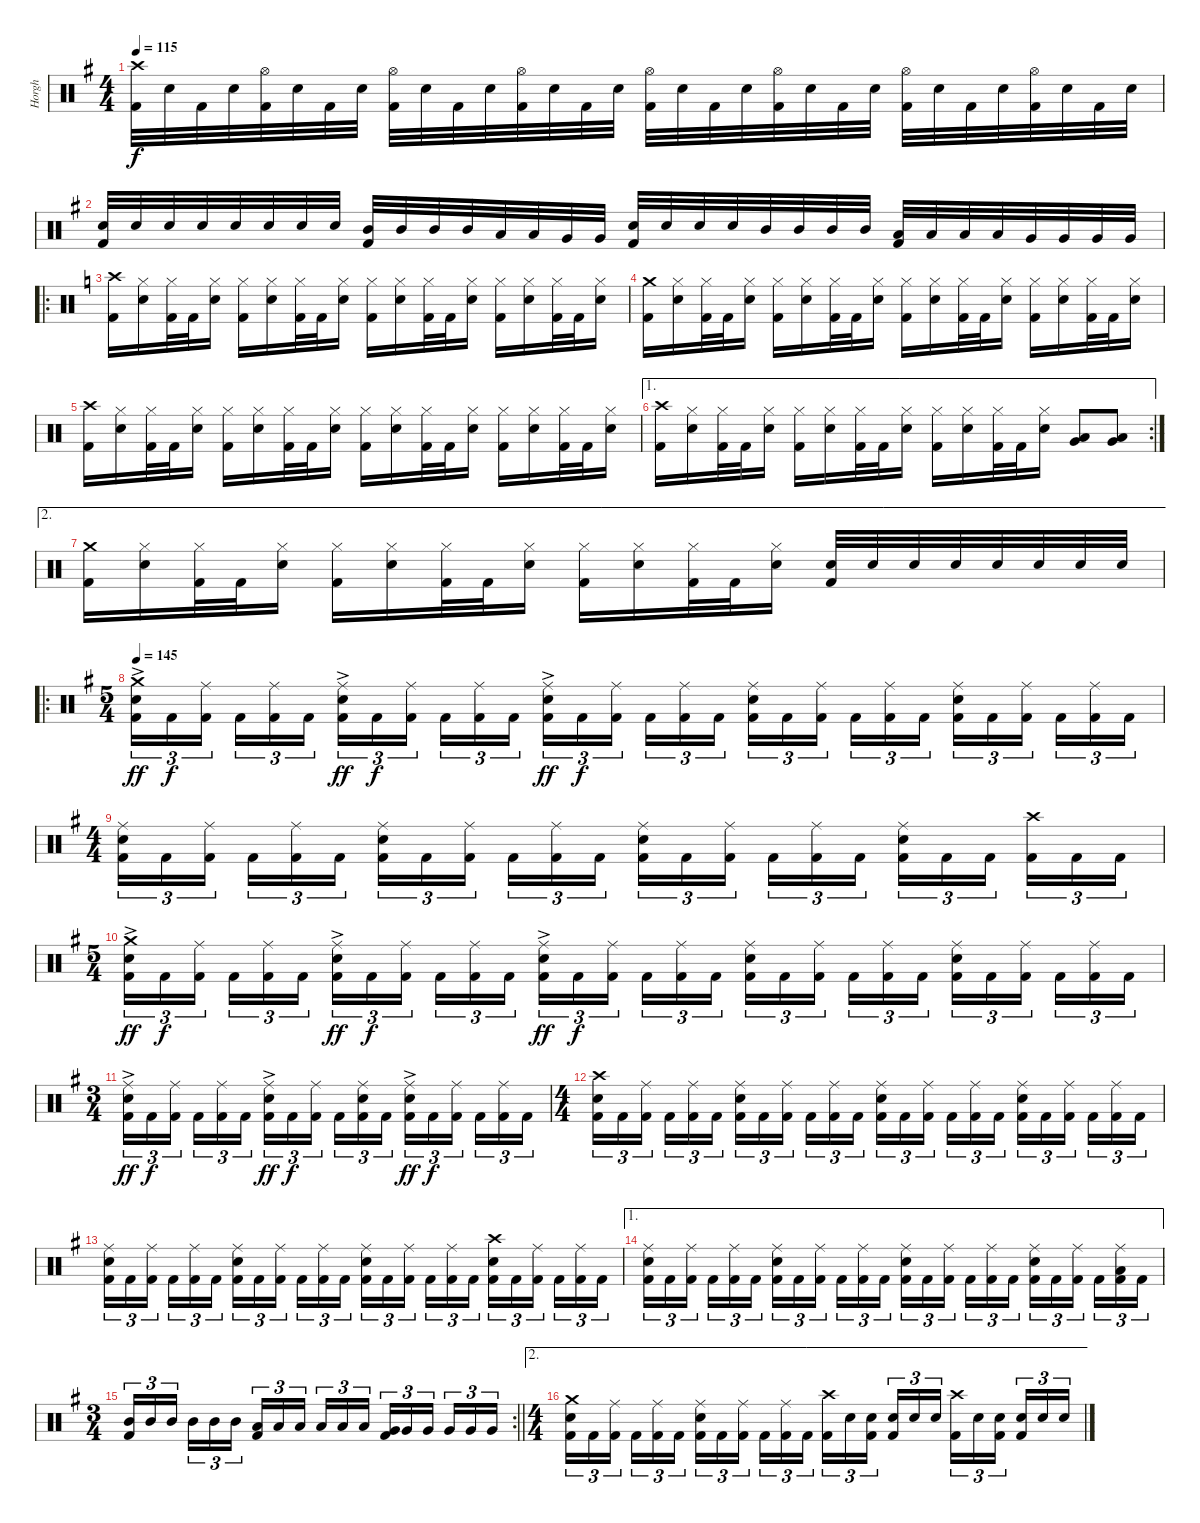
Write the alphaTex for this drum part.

\track ("Horgh" "Horgh") {instrument percussion}
\staff {score}
\articulation defaults
\ts (4 4)
\tempo 115
\clef neutral
\ks g
("Crash high (hit)" "Kick (hit) 2").32{dy f} "Electric Snare (hit)".32 "Kick (hit) 2".32 "Electric Snare (hit)".32 ("Hi-Hat (open)" "Kick (hit) 2").32 "Electric Snare (hit)".32 "Kick (hit) 2".32 "Electric Snare (hit)".32 ("Hi-Hat (open)" "Kick (hit) 2").32 "Electric Snare (hit)".32 "Kick (hit) 2".32 "Electric Snare (hit)".32 ("Hi-Hat (open)" "Kick (hit) 2").32 "Electric Snare (hit)".32 "Kick (hit) 2".32 "Electric Snare (hit)".32 ("Hi-Hat (open)" "Kick (hit) 2").32 "Electric Snare (hit)".32 "Kick (hit) 2".32 "Electric Snare (hit)".32 ("Hi-Hat (open)" "Kick (hit) 2").32 "Electric Snare (hit)".32 "Kick (hit) 2".32 "Electric Snare (hit)".32 ("Hi-Hat (open)" "Kick (hit) 2").32 "Electric Snare (hit)".32 "Kick (hit) 2".32 "Electric Snare (hit)".32 ("Hi-Hat (open)" "Kick (hit) 2").32 "Electric Snare (hit)".32 "Kick (hit) 2".32 "Electric Snare (hit)".32 |
("Electric Snare (hit)" "Kick (hit) 2").32 "Electric Snare (hit)".32 "Electric Snare (hit)".32 "Electric Snare (hit)".32 "Electric Snare (hit)".32 "Electric Snare (hit)".32 "Electric Snare (hit)".32 "Electric Snare (hit)".32 ("Mid Tom (hit)" "Kick (hit) 2").32 "Mid Tom (hit)".32 "Mid Tom (hit)".32 "Mid Tom (hit)".32 "Low Tom (hit)".32 "Low Tom (hit)".32 "Very Low Tom (hit)".32 "Very Low Tom (hit)".32 ("Electric Snare (hit)" "Kick (hit) 2").32 "Electric Snare (hit)".32 "Electric Snare (hit)".32 "Electric Snare (hit)".32 "Mid Tom (hit)".32 "Mid Tom (hit)".32 "Mid Tom (hit)".32 "Mid Tom (hit)".32 ("Low Tom (hit)" "Kick (hit) 2").32 "Low Tom (hit)".32 "Low Tom (hit)".32 "Low Tom (hit)".32 "Very Low Tom (hit)".32 "Very Low Tom (hit)".32 "Very Low Tom (hit)".32 "Very Low Tom (hit)".32 |
\ro
\ks c
("Crash high (hit)" "Kick (hit) 2").16 ("Hi-Hat (closed)" "Electric Snare (hit)").16 ("Hi-Hat (closed)" "Kick (hit) 2").32 "Kick (hit) 2".32 ("Hi-Hat (closed)" "Electric Snare (hit)").16 ("Hi-Hat (closed)" "Kick (hit) 2").16 ("Hi-Hat (closed)" "Electric Snare (hit)").16 ("Hi-Hat (closed)" "Kick (hit) 2").32 "Kick (hit) 2".32 ("Hi-Hat (closed)" "Electric Snare (hit)").16 ("Hi-Hat (closed)" "Kick (hit) 2").16 ("Hi-Hat (closed)" "Electric Snare (hit)").16 ("Hi-Hat (closed)" "Kick (hit) 2").32 "Kick (hit) 2".32 ("Hi-Hat (closed)" "Electric Snare (hit)").16 ("Hi-Hat (closed)" "Kick (hit) 2").16 ("Hi-Hat (closed)" "Electric Snare (hit)").16 ("Hi-Hat (closed)" "Kick (hit) 2").32 "Kick (hit) 2".32 ("Hi-Hat (closed)" "Electric Snare (hit)").16 |
("Crash medium (hit)" "Kick (hit) 2").16 ("Hi-Hat (closed)" "Electric Snare (hit)").16 ("Hi-Hat (closed)" "Kick (hit) 2").32 "Kick (hit) 2".32 ("Hi-Hat (closed)" "Electric Snare (hit)").16 ("Hi-Hat (closed)" "Kick (hit) 2").16 ("Hi-Hat (closed)" "Electric Snare (hit)").16 ("Hi-Hat (closed)" "Kick (hit) 2").32 "Kick (hit) 2".32 ("Hi-Hat (closed)" "Electric Snare (hit)").16 ("Hi-Hat (closed)" "Kick (hit) 2").16 ("Hi-Hat (closed)" "Electric Snare (hit)").16 ("Hi-Hat (closed)" "Kick (hit) 2").32 "Kick (hit) 2".32 ("Hi-Hat (closed)" "Electric Snare (hit)").16 ("Hi-Hat (closed)" "Kick (hit) 2").16 ("Hi-Hat (closed)" "Electric Snare (hit)").16 ("Hi-Hat (closed)" "Kick (hit) 2").32 "Kick (hit) 2".32 ("Hi-Hat (closed)" "Electric Snare (hit)").16 |
("Crash high (hit)" "Kick (hit) 2").16 ("Hi-Hat (closed)" "Electric Snare (hit)").16 ("Hi-Hat (closed)" "Kick (hit) 2").32 "Kick (hit) 2".32 ("Hi-Hat (closed)" "Electric Snare (hit)").16 ("Hi-Hat (closed)" "Kick (hit) 2").16 ("Hi-Hat (closed)" "Electric Snare (hit)").16 ("Hi-Hat (closed)" "Kick (hit) 2").32 "Kick (hit) 2".32 ("Hi-Hat (closed)" "Electric Snare (hit)").16 ("Hi-Hat (closed)" "Kick (hit) 2").16 ("Hi-Hat (closed)" "Electric Snare (hit)").16 ("Hi-Hat (closed)" "Kick (hit) 2").32 "Kick (hit) 2".32 ("Hi-Hat (closed)" "Electric Snare (hit)").16 ("Hi-Hat (closed)" "Kick (hit) 2").16 ("Hi-Hat (closed)" "Electric Snare (hit)").16 ("Hi-Hat (closed)" "Kick (hit) 2").32 "Kick (hit) 2".32 ("Hi-Hat (closed)" "Electric Snare (hit)").16 |
\ae 1
\rc 2
("Crash high (hit)" "Kick (hit) 2").16 ("Hi-Hat (closed)" "Electric Snare (hit)").16 ("Hi-Hat (closed)" "Kick (hit) 2").32 "Kick (hit) 2".32 ("Hi-Hat (closed)" "Electric Snare (hit)").16 ("Hi-Hat (closed)" "Kick (hit) 2").16 ("Hi-Hat (closed)" "Electric Snare (hit)").16 ("Hi-Hat (closed)" "Kick (hit) 2").32 "Kick (hit) 2".32 ("Hi-Hat (closed)" "Electric Snare (hit)").16 ("Hi-Hat (closed)" "Kick (hit) 2").16 ("Hi-Hat (closed)" "Electric Snare (hit)").16 ("Hi-Hat (closed)" "Kick (hit) 2").32 "Kick (hit) 2".32 ("Hi-Hat (closed)" "Electric Snare (hit)").16 ("Low Tom (hit)" "Very Low Tom (hit)").8 ("Very Low Tom (hit)" "Low Floor Tom (hit)").8 |
\ae 2
("Crash medium (hit)" "Kick (hit) 2").16 ("Hi-Hat (closed)" "Electric Snare (hit)").16 ("Hi-Hat (closed)" "Kick (hit) 2").32 "Kick (hit) 2".32 ("Hi-Hat (closed)" "Electric Snare (hit)").16 ("Hi-Hat (closed)" "Kick (hit) 2").16 ("Hi-Hat (closed)" "Electric Snare (hit)").16 ("Hi-Hat (closed)" "Kick (hit) 2").32 "Kick (hit) 2".32 ("Hi-Hat (closed)" "Electric Snare (hit)").16 ("Hi-Hat (closed)" "Kick (hit) 2").16 ("Hi-Hat (closed)" "Electric Snare (hit)").16 ("Hi-Hat (closed)" "Kick (hit) 2").32 "Kick (hit) 2".32 ("Hi-Hat (closed)" "Electric Snare (hit)").16 ("Electric Snare (hit)" "Kick (hit) 2").32 "Electric Snare (hit)".32 "Electric Snare (hit)".32 "Electric Snare (hit)".32 "Electric Snare (hit)".32 "Electric Snare (hit)".32 "Electric Snare (hit)".32 "Electric Snare (hit)".32 |
\ro
\ts (5 4)
\tempo 145
\ks g
("Crash medium (hit)"{ac} "Electric Snare (hit)" "Kick (hit) 2").16{tu (3 2) dy ff} "Kick (hit) 2".16{tu (3 2) dy f} ("Ride (middle)" "Kick (hit) 2").16{tu (3 2) beam splitsecondary} "Kick (hit) 2".16{tu (3 2)} ("Ride (middle)" "Kick (hit) 2").16{tu (3 2)} "Kick (hit) 2".16{tu (3 2)} ("Ride (middle)"{ac} "Electric Snare (hit)" "Kick (hit) 2").16{tu (3 2) dy ff} "Kick (hit) 2".16{tu (3 2) dy f} ("Ride (middle)" "Kick (hit) 2").16{tu (3 2) beam splitsecondary} "Kick (hit) 2".16{tu (3 2)} ("Ride (middle)" "Kick (hit) 2").16{tu (3 2)} "Kick (hit) 2".16{tu (3 2)} ("Ride (middle)"{ac} "Electric Snare (hit)" "Kick (hit) 2").16{tu (3 2) dy ff} "Kick (hit) 2".16{tu (3 2) dy f} ("Ride (middle)" "Kick (hit) 2").16{tu (3 2) beam splitsecondary} "Kick (hit) 2".16{tu (3 2)} ("Ride (middle)" "Kick (hit) 2").16{tu (3 2)} "Kick (hit) 2".16{tu (3 2)} ("Ride (middle)" "Electric Snare (hit)" "Kick (hit) 2").16{tu (3 2)} "Kick (hit) 2".16{tu (3 2)} ("Ride (middle)" "Kick (hit) 2").16{tu (3 2) beam splitsecondary} "Kick (hit) 2".16{tu (3 2)} ("Ride (middle)" "Kick (hit) 2").16{tu (3 2)} "Kick (hit) 2".16{tu (3 2)} ("Ride (middle)" "Electric Snare (hit)" "Kick (hit) 2").16{tu (3 2)} "Kick (hit) 2".16{tu (3 2)} ("Ride (middle)" "Kick (hit) 2").16{tu (3 2) beam splitsecondary} "Kick (hit) 2".16{tu (3 2)} ("Ride (middle)" "Kick (hit) 2").16{tu (3 2)} "Kick (hit) 2".16{tu (3 2)} |
\ts (4 4)
("Ride (middle)" "Electric Snare (hit)" "Kick (hit) 2").16{tu (3 2)} "Kick (hit) 2".16{tu (3 2)} ("Ride (middle)" "Kick (hit) 2").16{tu (3 2) beam splitsecondary} "Kick (hit) 2".16{tu (3 2)} ("Ride (middle)" "Kick (hit) 2").16{tu (3 2)} "Kick (hit) 2".16{tu (3 2)} ("Ride (middle)" "Electric Snare (hit)" "Kick (hit) 2").16{tu (3 2)} "Kick (hit) 2".16{tu (3 2)} ("Ride (middle)" "Kick (hit) 2").16{tu (3 2) beam splitsecondary} "Kick (hit) 2".16{tu (3 2)} ("Ride (middle)" "Kick (hit) 2").16{tu (3 2)} "Kick (hit) 2".16{tu (3 2)} ("Ride (middle)" "Electric Snare (hit)" "Kick (hit) 2").16{tu (3 2)} "Kick (hit) 2".16{tu (3 2)} ("Ride (middle)" "Kick (hit) 2").16{tu (3 2) beam splitsecondary} "Kick (hit) 2".16{tu (3 2)} ("Ride (middle)" "Kick (hit) 2").16{tu (3 2)} "Kick (hit) 2".16{tu (3 2)} ("Ride (middle)" "Electric Snare (hit)" "Kick (hit) 2").16{tu (3 2)} "Kick (hit) 2".16{tu (3 2)} "Kick (hit) 2".16{tu (3 2) beam splitsecondary} ("Crash high (hit)" "Kick (hit) 2").16{tu (3 2)} "Kick (hit) 2".16{tu (3 2)} "Kick (hit) 2".16{tu (3 2)} |
\ts (5 4)
("Crash medium (hit)"{ac} "Electric Snare (hit)" "Kick (hit) 2").16{tu (3 2) dy ff} "Kick (hit) 2".16{tu (3 2) dy f} ("Ride (middle)" "Kick (hit) 2").16{tu (3 2) beam splitsecondary} "Kick (hit) 2".16{tu (3 2)} ("Ride (middle)" "Kick (hit) 2").16{tu (3 2)} "Kick (hit) 2".16{tu (3 2)} ("Ride (middle)"{ac} "Electric Snare (hit)" "Kick (hit) 2").16{tu (3 2) dy ff} "Kick (hit) 2".16{tu (3 2) dy f} ("Ride (middle)" "Kick (hit) 2").16{tu (3 2) beam splitsecondary} "Kick (hit) 2".16{tu (3 2)} ("Ride (middle)" "Kick (hit) 2").16{tu (3 2)} "Kick (hit) 2".16{tu (3 2)} ("Ride (middle)"{ac} "Electric Snare (hit)" "Kick (hit) 2").16{tu (3 2) dy ff} "Kick (hit) 2".16{tu (3 2) dy f} ("Ride (middle)" "Kick (hit) 2").16{tu (3 2) beam splitsecondary} "Kick (hit) 2".16{tu (3 2)} ("Ride (middle)" "Kick (hit) 2").16{tu (3 2)} "Kick (hit) 2".16{tu (3 2)} ("Ride (middle)" "Electric Snare (hit)" "Kick (hit) 2").16{tu (3 2)} "Kick (hit) 2".16{tu (3 2)} ("Ride (middle)" "Kick (hit) 2").16{tu (3 2) beam splitsecondary} "Kick (hit) 2".16{tu (3 2)} ("Ride (middle)" "Kick (hit) 2").16{tu (3 2)} "Kick (hit) 2".16{tu (3 2)} ("Ride (middle)" "Electric Snare (hit)" "Kick (hit) 2").16{tu (3 2)} "Kick (hit) 2".16{tu (3 2)} ("Ride (middle)" "Kick (hit) 2").16{tu (3 2) beam splitsecondary} "Kick (hit) 2".16{tu (3 2)} ("Ride (middle)" "Kick (hit) 2").16{tu (3 2)} "Kick (hit) 2".16{tu (3 2)} |
\ts (3 4)
("Ride (middle)"{ac} "Electric Snare (hit)" "Kick (hit) 2").16{tu (3 2) dy ff} "Kick (hit) 2".16{tu (3 2) dy f} ("Ride (middle)" "Kick (hit) 2").16{tu (3 2) beam splitsecondary} "Kick (hit) 2".16{tu (3 2)} ("Ride (middle)" "Kick (hit) 2").16{tu (3 2)} "Kick (hit) 2".16{tu (3 2)} ("Ride (middle)"{ac} "Electric Snare (hit)" "Kick (hit) 2").16{tu (3 2) dy ff} "Kick (hit) 2".16{tu (3 2) dy f} ("Ride (middle)" "Kick (hit) 2").16{tu (3 2) beam splitsecondary} "Kick (hit) 2".16{tu (3 2)} ("Ride (middle)" "Electric Snare (hit)" "Kick (hit) 2").16{tu (3 2)} "Kick (hit) 2".16{tu (3 2)} ("Ride (middle)"{ac} "Electric Snare (hit)" "Kick (hit) 2").16{tu (3 2) dy ff} "Kick (hit) 2".16{tu (3 2) dy f} ("Ride (middle)" "Kick (hit) 2").16{tu (3 2) beam splitsecondary} "Kick (hit) 2".16{tu (3 2)} ("Ride (middle)" "Kick (hit) 2").16{tu (3 2)} "Kick (hit) 2".16{tu (3 2)} |
\ts (4 4)
("Crash high (hit)" "Electric Snare (hit)" "Kick (hit) 2").16{tu (3 2)} "Kick (hit) 2".16{tu (3 2)} ("Ride (middle)" "Kick (hit) 2").16{tu (3 2) beam splitsecondary} "Kick (hit) 2".16{tu (3 2)} ("Ride (middle)" "Kick (hit) 2").16{tu (3 2)} "Kick (hit) 2".16{tu (3 2)} ("Ride (middle)" "Electric Snare (hit)" "Kick (hit) 2").16{tu (3 2)} "Kick (hit) 2".16{tu (3 2)} ("Ride (middle)" "Kick (hit) 2").16{tu (3 2) beam splitsecondary} "Kick (hit) 2".16{tu (3 2)} ("Ride (middle)" "Kick (hit) 2").16{tu (3 2)} "Kick (hit) 2".16{tu (3 2)} ("Ride (middle)" "Electric Snare (hit)" "Kick (hit) 2").16{tu (3 2)} "Kick (hit) 2".16{tu (3 2)} ("Ride (middle)" "Kick (hit) 2").16{tu (3 2) beam splitsecondary} "Kick (hit) 2".16{tu (3 2)} ("Ride (middle)" "Kick (hit) 2").16{tu (3 2)} "Kick (hit) 2".16{tu (3 2)} ("Ride (middle)" "Electric Snare (hit)" "Kick (hit) 2").16{tu (3 2)} "Kick (hit) 2".16{tu (3 2)} ("Ride (middle)" "Kick (hit) 2").16{tu (3 2) beam splitsecondary} "Kick (hit) 2".16{tu (3 2)} ("Ride (middle)" "Kick (hit) 2").16{tu (3 2)} "Kick (hit) 2".16{tu (3 2)} |
("Ride (middle)" "Electric Snare (hit)" "Kick (hit) 2").16{tu (3 2)} "Kick (hit) 2".16{tu (3 2)} ("Ride (middle)" "Kick (hit) 2").16{tu (3 2) beam splitsecondary} "Kick (hit) 2".16{tu (3 2)} ("Ride (middle)" "Kick (hit) 2").16{tu (3 2)} "Kick (hit) 2".16{tu (3 2)} ("Ride (middle)" "Electric Snare (hit)" "Kick (hit) 2").16{tu (3 2)} "Kick (hit) 2".16{tu (3 2)} ("Ride (middle)" "Kick (hit) 2").16{tu (3 2) beam splitsecondary} "Kick (hit) 2".16{tu (3 2)} ("Ride (middle)" "Kick (hit) 2").16{tu (3 2)} "Kick (hit) 2".16{tu (3 2)} ("Ride (middle)" "Electric Snare (hit)" "Kick (hit) 2").16{tu (3 2)} "Kick (hit) 2".16{tu (3 2)} ("Ride (middle)" "Kick (hit) 2").16{tu (3 2) beam splitsecondary} "Kick (hit) 2".16{tu (3 2)} ("Ride (middle)" "Kick (hit) 2").16{tu (3 2)} "Kick (hit) 2".16{tu (3 2)} ("Crash high (hit)" "Electric Snare (hit)" "Kick (hit) 2").16{tu (3 2)} "Kick (hit) 2".16{tu (3 2)} ("Ride (middle)" "Kick (hit) 2").16{tu (3 2) beam splitsecondary} "Kick (hit) 2".16{tu (3 2)} ("Ride (middle)" "Kick (hit) 2").16{tu (3 2)} "Kick (hit) 2".16{tu (3 2)} |
\ae 1
("Ride (middle)" "Electric Snare (hit)" "Kick (hit) 2").16{tu (3 2)} "Kick (hit) 2".16{tu (3 2)} ("Ride (middle)" "Kick (hit) 2").16{tu (3 2) beam splitsecondary} "Kick (hit) 2".16{tu (3 2)} ("Ride (middle)" "Kick (hit) 2").16{tu (3 2)} "Kick (hit) 2".16{tu (3 2)} ("Ride (middle)" "Electric Snare (hit)" "Kick (hit) 2").16{tu (3 2)} "Kick (hit) 2".16{tu (3 2)} ("Ride (middle)" "Kick (hit) 2").16{tu (3 2) beam splitsecondary} "Kick (hit) 2".16{tu (3 2)} ("Ride (middle)" "Kick (hit) 2").16{tu (3 2)} "Kick (hit) 2".16{tu (3 2)} ("Ride (middle)" "Electric Snare (hit)" "Kick (hit) 2").16{tu (3 2)} "Kick (hit) 2".16{tu (3 2)} ("Ride (middle)" "Kick (hit) 2").16{tu (3 2) beam splitsecondary} "Kick (hit) 2".16{tu (3 2)} ("Ride (middle)" "Kick (hit) 2").16{tu (3 2)} "Kick (hit) 2".16{tu (3 2)} ("Ride (middle)" "Electric Snare (hit)" "Kick (hit) 2").16{tu (3 2)} "Kick (hit) 2".16{tu (3 2)} ("Ride (middle)" "Kick (hit) 2").16{tu (3 2) beam splitsecondary} "Kick (hit) 2".16{tu (3 2)} ("Ride (middle)" "Low Floor Tom (hit)" "Kick (hit) 2").16{tu (3 2)} "Kick (hit) 2".16{tu (3 2)} |
\rc 2
\ts (3 4)
\barLineRight lightlight
("Mid Tom (hit)" "Kick (hit) 2").16{tu (3 2)} "Mid Tom (hit)".16{tu (3 2)} "Mid Tom (hit)".16{tu (3 2) beam splitsecondary} "Mid Tom (hit)".16{tu (3 2)} "Mid Tom (hit)".16{tu (3 2)} "Mid Tom (hit)".16{tu (3 2)} ("Low Tom (hit)" "Kick (hit) 2").16{tu (3 2)} "Low Tom (hit)".16{tu (3 2)} "Low Tom (hit)".16{tu (3 2) beam splitsecondary} "Low Tom (hit)".16{tu (3 2)} "Low Tom (hit)".16{tu (3 2)} "Low Tom (hit)".16{tu (3 2)} ("Very Low Tom (hit)" "Kick (hit) 2").16{tu (3 2)} "Very Low Tom (hit)".16{tu (3 2)} "Very Low Tom (hit)".16{tu (3 2) beam splitsecondary} "Very Low Tom (hit)".16{tu (3 2)} "Very Low Tom (hit)".16{tu (3 2)} "Very Low Tom (hit)".16{tu (3 2)} |
\ae 2
\ts (4 4)
("Crash medium (hit)" "Electric Snare (hit)" "Kick (hit) 2").16{tu (3 2)} "Kick (hit) 2".16{tu (3 2)} ("Ride (middle)" "Kick (hit) 2").16{tu (3 2) beam splitsecondary} "Kick (hit) 2".16{tu (3 2)} ("Ride (middle)" "Kick (hit) 2").16{tu (3 2)} "Kick (hit) 2".16{tu (3 2)} ("Ride (middle)" "Electric Snare (hit)" "Kick (hit) 2").16{tu (3 2)} "Kick (hit) 2".16{tu (3 2)} ("Ride (middle)" "Kick (hit) 2").16{tu (3 2) beam splitsecondary} "Kick (hit) 2".16{tu (3 2)} ("Ride (middle)" "Kick (hit) 2").16{tu (3 2)} "Kick (hit) 2".16{tu (3 2)} ("Crash high (hit)" "Kick (hit) 2").16{tu (3 2)} "Electric Snare (hit)".16{tu (3 2)} ("Electric Snare (hit)" "Kick (hit) 2").16{tu (3 2) beam splitsecondary} ("Electric Snare (hit)" "Kick (hit) 2").16{tu (3 2)} "Electric Snare (hit)".16{tu (3 2)} "Electric Snare (hit)".16{tu (3 2)} ("Crash high (hit)" "Kick (hit) 2").16{tu (3 2)} "Electric Snare (hit)".16{tu (3 2)} ("Electric Snare (hit)" "Kick (hit) 2").16{tu (3 2) beam splitsecondary} ("Electric Snare (hit)" "Kick (hit) 2").16{tu (3 2)} "Electric Snare (hit)".16{tu (3 2)} "Electric Snare (hit)".16{tu (3 2)}
